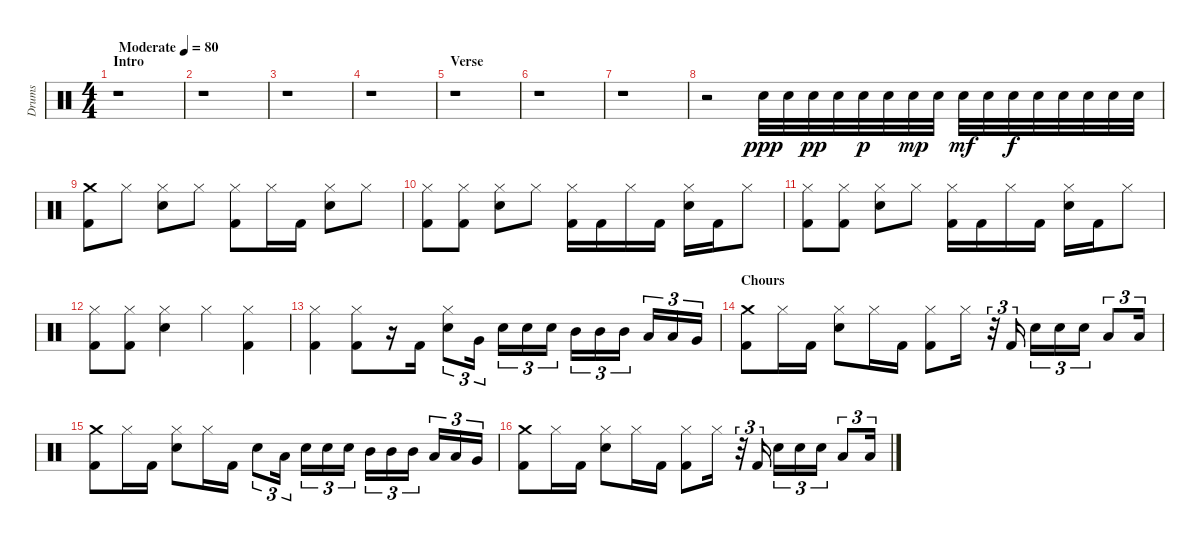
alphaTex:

\track ("Drums" "Drums") {instrument percussion}
\staff {score}
\articulation defaults
\ts (4 4)
\section ("" "Intro")
\tempo (80 "Moderate")
\clef neutral
\ks c
r.1{dy ppp} |
r.1 |
r.1 |
r.1 |
\section ("" "Verse")
r.1 |
r.1 |
r.1 |
r.2 "Electric Snare (hit)".32 "Electric Snare (hit)".32 "Electric Snare (hit)".32{dy pp} "Electric Snare (hit)".32 "Electric Snare (hit)".32{dy p} "Electric Snare (hit)".32 "Electric Snare (hit)".32{dy mp} "Electric Snare (hit)".32 "Electric Snare (hit)".32{dy mf} "Electric Snare (hit)".32 "Electric Snare (hit)".32{dy f} "Electric Snare (hit)".32 "Electric Snare (hit)".32 "Electric Snare (hit)".32 "Electric Snare (hit)".32 "Electric Snare (hit)".32 |
("Crash medium (hit)" "Kick (hit) 2").8 "Hi-Hat (closed)".8 ("Hi-Hat (closed)" "Electric Snare (hit)").8 "Hi-Hat (closed)".8 ("Hi-Hat (closed)" "Kick (hit) 2").8 "Hi-Hat (closed)".16 "Kick (hit) 2".16 ("Hi-Hat (closed)" "Electric Snare (hit)").8 "Hi-Hat (closed)".8 |
("Hi-Hat (closed)" "Kick (hit) 2").8 ("Hi-Hat (closed)" "Kick (hit) 2").8 ("Hi-Hat (closed)" "Electric Snare (hit)").8 "Hi-Hat (closed)".8 ("Hi-Hat (closed)" "Kick (hit) 2").16 "Kick (hit) 2".16 "Hi-Hat (closed)".16 "Kick (hit) 2".16 ("Hi-Hat (closed)" "Electric Snare (hit)").16 "Kick (hit) 2".16 "Hi-Hat (closed)".8 |
("Hi-Hat (closed)" "Kick (hit) 2").8 ("Hi-Hat (closed)" "Kick (hit) 2").8 ("Hi-Hat (closed)" "Electric Snare (hit)").8 "Hi-Hat (closed)".8 ("Hi-Hat (closed)" "Kick (hit) 2").16 "Kick (hit) 2".16 "Hi-Hat (closed)".16 "Kick (hit) 2".16 ("Hi-Hat (closed)" "Electric Snare (hit)").16 "Kick (hit) 2".16 "Hi-Hat (closed)".8 |
("Hi-Hat (closed)" "Kick (hit) 2").8 ("Hi-Hat (closed)" "Kick (hit) 2").8 ("Hi-Hat (closed)" "Electric Snare (hit)").4 "Hi-Hat (closed)".4 ("Hi-Hat (closed)" "Kick (hit) 2").4 |
("Hi-Hat (closed)" "Kick (hit) 2").4 ("Hi-Hat (closed)" "Kick (hit) 2").8 r.16 "Kick (hit) 2".16 ("Hi-Hat (closed)" "Electric Snare (hit)").8{tu (3 2)} "Very Low Tom (hit)".16{tu (3 2)} "Electric Snare (hit)".16{tu (3 2)} "Electric Snare (hit)".16{tu (3 2)} "Electric Snare (hit)".16{tu (3 2)} "Mid Tom (hit)".16{tu (3 2)} "Mid Tom (hit)".16{tu (3 2)} "Mid Tom (hit)".16{tu (3 2)} "Low Tom (hit)".16{tu (3 2)} "Low Tom (hit)".16{tu (3 2)} "Very Low Tom (hit)".16{tu (3 2)} |
\section ("" "Chours")
("Crash medium (hit)" "Kick (hit) 2").8 "Hi-Hat (closed)".16 "Kick (hit) 2".16 ("Hi-Hat (closed)" "Electric Snare (hit)").8 "Hi-Hat (closed)".16 "Kick (hit) 2".16 ("Hi-Hat (closed)" "Kick (hit) 2").8 "Hi-Hat (closed)".16 r.32{tu (3 2)} "Kick (hit) 2".16{tu (3 2)} "Electric Snare (hit)".16{tu (3 2)} "Electric Snare (hit)".16{tu (3 2)} "Electric Snare (hit)".16{tu (3 2)} "Low Tom (hit)".8{tu (3 2)} "Low Tom (hit)".16{tu (3 2)} |
("Crash medium (hit)" "Kick (hit) 2").8 "Hi-Hat (closed)".16 "Kick (hit) 2".16 ("Hi-Hat (closed)" "Electric Snare (hit)").8 "Hi-Hat (closed)".16 "Kick (hit) 2".16 "Electric Snare (hit)".8{tu (3 2)} "Low Tom (hit)".16{tu (3 2)} "Electric Snare (hit)".16{tu (3 2)} "Electric Snare (hit)".16{tu (3 2)} "Electric Snare (hit)".16{tu (3 2)} "Mid Tom (hit)".16{tu (3 2)} "Mid Tom (hit)".16{tu (3 2)} "Mid Tom (hit)".16{tu (3 2)} "Low Tom (hit)".16{tu (3 2)} "Low Tom (hit)".16{tu (3 2)} "Very Low Tom (hit)".16{tu (3 2)} |
("Crash medium (hit)" "Kick (hit) 2").8 "Hi-Hat (closed)".16 "Kick (hit) 2".16 ("Hi-Hat (closed)" "Electric Snare (hit)").8 "Hi-Hat (closed)".16 "Kick (hit) 2".16 ("Hi-Hat (closed)" "Kick (hit) 2").8 "Hi-Hat (closed)".16 r.32{tu (3 2)} "Kick (hit) 2".16{tu (3 2)} "Electric Snare (hit)".16{tu (3 2)} "Electric Snare (hit)".16{tu (3 2)} "Electric Snare (hit)".16{tu (3 2)} "Low Tom (hit)".8{tu (3 2)} "Low Tom (hit)".16{tu (3 2)}
